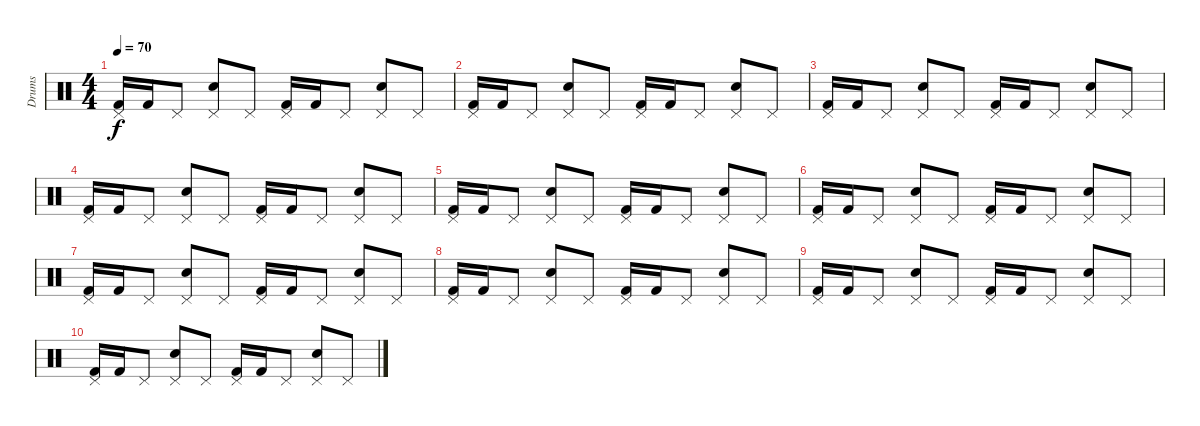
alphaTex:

\track ("Drums" "Drums") {instrument percussion}
\staff {score}
\articulation defaults
\ts (4 4)
\tempo 70
\clef neutral
\ks c
("Pedal Hi-Hat (hit)" "Kick (hit) 2").16{dy f} "Kick (hit) 2".16 "Pedal Hi-Hat (hit)".8 ("Pedal Hi-Hat (hit)" "Electric Snare (hit)").8 "Pedal Hi-Hat (hit)".8 ("Pedal Hi-Hat (hit)" "Kick (hit) 2").16 "Kick (hit) 2".16 "Pedal Hi-Hat (hit)".8 ("Pedal Hi-Hat (hit)" "Electric Snare (hit)").8 "Pedal Hi-Hat (hit)".8 |
("Pedal Hi-Hat (hit)" "Kick (hit) 2").16 "Kick (hit) 2".16 "Pedal Hi-Hat (hit)".8 ("Pedal Hi-Hat (hit)" "Electric Snare (hit)").8 "Pedal Hi-Hat (hit)".8 ("Pedal Hi-Hat (hit)" "Kick (hit) 2").16 "Kick (hit) 2".16 "Pedal Hi-Hat (hit)".8 ("Pedal Hi-Hat (hit)" "Electric Snare (hit)").8 "Pedal Hi-Hat (hit)".8 |
("Pedal Hi-Hat (hit)" "Kick (hit) 2").16 "Kick (hit) 2".16 "Pedal Hi-Hat (hit)".8 ("Pedal Hi-Hat (hit)" "Electric Snare (hit)").8 "Pedal Hi-Hat (hit)".8 ("Pedal Hi-Hat (hit)" "Kick (hit) 2").16 "Kick (hit) 2".16 "Pedal Hi-Hat (hit)".8 ("Pedal Hi-Hat (hit)" "Electric Snare (hit)").8 "Pedal Hi-Hat (hit)".8 |
("Pedal Hi-Hat (hit)" "Kick (hit) 2").16 "Kick (hit) 2".16 "Pedal Hi-Hat (hit)".8 ("Pedal Hi-Hat (hit)" "Electric Snare (hit)").8 "Pedal Hi-Hat (hit)".8 ("Pedal Hi-Hat (hit)" "Kick (hit) 2").16 "Kick (hit) 2".16 "Pedal Hi-Hat (hit)".8 ("Pedal Hi-Hat (hit)" "Electric Snare (hit)").8 "Pedal Hi-Hat (hit)".8 |
("Pedal Hi-Hat (hit)" "Kick (hit) 2").16 "Kick (hit) 2".16 "Pedal Hi-Hat (hit)".8 ("Pedal Hi-Hat (hit)" "Electric Snare (hit)").8 "Pedal Hi-Hat (hit)".8 ("Pedal Hi-Hat (hit)" "Kick (hit) 2").16 "Kick (hit) 2".16 "Pedal Hi-Hat (hit)".8 ("Pedal Hi-Hat (hit)" "Electric Snare (hit)").8 "Pedal Hi-Hat (hit)".8 |
("Pedal Hi-Hat (hit)" "Kick (hit) 2").16 "Kick (hit) 2".16 "Pedal Hi-Hat (hit)".8 ("Pedal Hi-Hat (hit)" "Electric Snare (hit)").8 "Pedal Hi-Hat (hit)".8 ("Pedal Hi-Hat (hit)" "Kick (hit) 2").16 "Kick (hit) 2".16 "Pedal Hi-Hat (hit)".8 ("Pedal Hi-Hat (hit)" "Electric Snare (hit)").8 "Pedal Hi-Hat (hit)".8 |
("Pedal Hi-Hat (hit)" "Kick (hit) 2").16 "Kick (hit) 2".16 "Pedal Hi-Hat (hit)".8 ("Pedal Hi-Hat (hit)" "Electric Snare (hit)").8 "Pedal Hi-Hat (hit)".8 ("Pedal Hi-Hat (hit)" "Kick (hit) 2").16 "Kick (hit) 2".16 "Pedal Hi-Hat (hit)".8 ("Pedal Hi-Hat (hit)" "Electric Snare (hit)").8 "Pedal Hi-Hat (hit)".8 |
("Pedal Hi-Hat (hit)" "Kick (hit) 2").16 "Kick (hit) 2".16 "Pedal Hi-Hat (hit)".8 ("Pedal Hi-Hat (hit)" "Electric Snare (hit)").8 "Pedal Hi-Hat (hit)".8 ("Pedal Hi-Hat (hit)" "Kick (hit) 2").16 "Kick (hit) 2".16 "Pedal Hi-Hat (hit)".8 ("Pedal Hi-Hat (hit)" "Electric Snare (hit)").8 "Pedal Hi-Hat (hit)".8 |
("Pedal Hi-Hat (hit)" "Kick (hit) 2").16 "Kick (hit) 2".16 "Pedal Hi-Hat (hit)".8 ("Pedal Hi-Hat (hit)" "Electric Snare (hit)").8 "Pedal Hi-Hat (hit)".8 ("Pedal Hi-Hat (hit)" "Kick (hit) 2").16 "Kick (hit) 2".16 "Pedal Hi-Hat (hit)".8 ("Pedal Hi-Hat (hit)" "Electric Snare (hit)").8 "Pedal Hi-Hat (hit)".8 |
("Pedal Hi-Hat (hit)" "Kick (hit) 2").16 "Kick (hit) 2".16 "Pedal Hi-Hat (hit)".8 ("Pedal Hi-Hat (hit)" "Electric Snare (hit)").8 "Pedal Hi-Hat (hit)".8 ("Pedal Hi-Hat (hit)" "Kick (hit) 2").16 "Kick (hit) 2".16 "Pedal Hi-Hat (hit)".8 ("Pedal Hi-Hat (hit)" "Electric Snare (hit)").8 "Pedal Hi-Hat (hit)".8
